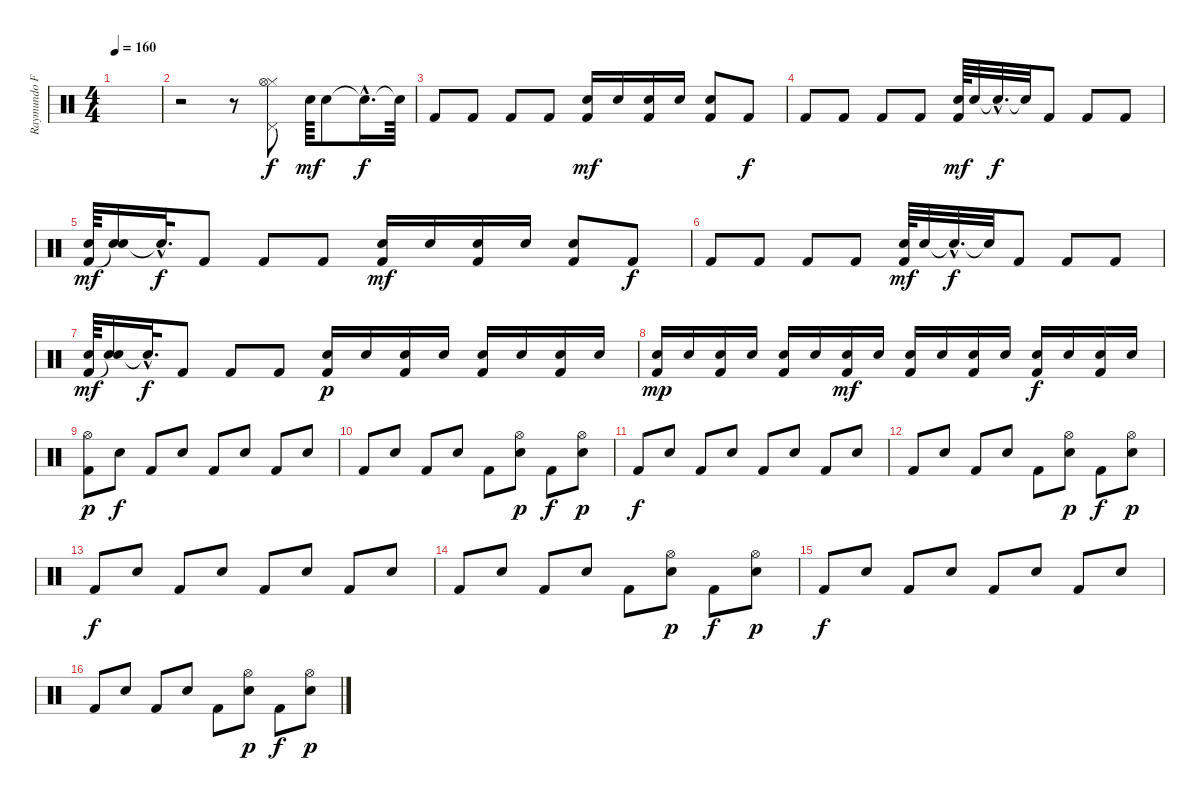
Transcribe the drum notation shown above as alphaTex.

\track ("Raymundo Fajardo (Batería)" "Raymundo F") {instrument percussion}
\staff {score}
\articulation defaults
\ts (4 4)
\tempo 160
\clef neutral
\ks c
|
r.2 r.8 ("Hi-Hat (closed)" "Pedal Hi-Hat (hit)" "Hi-Hat (open)").8 "Electric Snare (hit)".64{dy mf} "Electric Snare (hit)".8 "Snare (hit)"{hac t}.16{d dy f} "Snare (hit)"{t}.64 |
"Kick (hit) 2".8 "Kick (hit) 2".8 "Kick (hit) 2".8 "Kick (hit) 2".8 ("Electric Snare (hit)" "Kick (hit) 2").16{dy mf} "Electric Snare (hit)".16 ("Electric Snare (hit)" "Kick (hit) 2").16 "Electric Snare (hit)".16 ("Electric Snare (hit)" "Kick (hit) 2").8 "Kick (hit) 2".8{dy f} |
"Kick (hit) 2".8 "Kick (hit) 2".8 "Kick (hit) 2".8 "Kick (hit) 2".8 ("Kick (hit) 2" "Electric Snare (hit)").64{dy mf} "Electric Snare (hit)".32 "Snare (hit)"{hac t}.32{d dy f} "Snare (hit)"{t}.32 "Kick (hit) 2".8 "Kick (hit) 2".8 "Kick (hit) 2".8 |
("Kick (hit) 2" "Electric Snare (hit)").64{dy mf} ("Snare (hit)"{t} "Electric Snare (hit)").16 "Snare (hit)"{hac t}.32{d dy f} "Kick (hit) 2".8 "Kick (hit) 2".8 "Kick (hit) 2".8 ("Electric Snare (hit)" "Kick (hit) 2").16{dy mf} "Electric Snare (hit)".16 ("Electric Snare (hit)" "Kick (hit) 2").16 "Electric Snare (hit)".16 ("Electric Snare (hit)" "Kick (hit) 2").8 "Kick (hit) 2".8{dy f} |
"Kick (hit) 2".8 "Kick (hit) 2".8 "Kick (hit) 2".8 "Kick (hit) 2".8 ("Kick (hit) 2" "Electric Snare (hit)").64{dy mf} "Electric Snare (hit)".32 "Snare (hit)"{hac t}.32{d dy f} "Snare (hit)"{t}.32 "Kick (hit) 2".8 "Kick (hit) 2".8 "Kick (hit) 2".8 |
("Kick (hit) 2" "Electric Snare (hit)").64{dy mf} ("Snare (hit)"{t} "Electric Snare (hit)").16 "Snare (hit)"{hac t}.32{d dy f} "Kick (hit) 2".8 "Kick (hit) 2".8 "Kick (hit) 2".8 ("Electric Snare (hit)" "Kick (hit) 2").16{dy p} "Electric Snare (hit)".16 ("Electric Snare (hit)" "Kick (hit) 2").16 "Electric Snare (hit)".16 ("Electric Snare (hit)" "Kick (hit) 2").16 "Electric Snare (hit)".16 ("Electric Snare (hit)" "Kick (hit) 2").16 "Electric Snare (hit)".16 |
("Electric Snare (hit)" "Kick (hit) 2").16{dy mp} "Electric Snare (hit)".16 ("Electric Snare (hit)" "Kick (hit) 2").16 "Electric Snare (hit)".16 ("Electric Snare (hit)" "Kick (hit) 2").16 "Electric Snare (hit)".16 ("Electric Snare (hit)" "Kick (hit) 2").16{dy mf} "Electric Snare (hit)".16 ("Electric Snare (hit)" "Kick (hit) 2").16 "Electric Snare (hit)".16 ("Electric Snare (hit)" "Kick (hit) 2").16 "Electric Snare (hit)".16 ("Electric Snare (hit)" "Kick (hit) 2").16{dy f} "Electric Snare (hit)".16 ("Electric Snare (hit)" "Kick (hit) 2").16 "Electric Snare (hit)".16 |
("Kick (hit) 2" "Hi-Hat (open)").8{dy p} "Electric Snare (hit)".8{dy f} "Kick (hit) 2".8 "Electric Snare (hit)".8 "Kick (hit) 2".8 "Electric Snare (hit)".8 "Kick (hit) 2".8 "Electric Snare (hit)".8 |
"Kick (hit) 2".8 "Electric Snare (hit)".8 "Kick (hit) 2".8 "Electric Snare (hit)".8 "Kick (hit) 2".8 ("Electric Snare (hit)" "Hi-Hat (open)").8{dy p} "Kick (hit) 2".8{dy f} ("Electric Snare (hit)" "Hi-Hat (open)").8{dy p} |
"Kick (hit) 2".8{dy f} "Electric Snare (hit)".8 "Kick (hit) 2".8 "Electric Snare (hit)".8 "Kick (hit) 2".8 "Electric Snare (hit)".8 "Kick (hit) 2".8 "Electric Snare (hit)".8 |
"Kick (hit) 2".8 "Electric Snare (hit)".8 "Kick (hit) 2".8 "Electric Snare (hit)".8 "Kick (hit) 2".8 ("Electric Snare (hit)" "Hi-Hat (open)").8{dy p} "Kick (hit) 2".8{dy f} ("Electric Snare (hit)" "Hi-Hat (open)").8{dy p} |
"Kick (hit) 2".8{dy f} "Electric Snare (hit)".8 "Kick (hit) 2".8 "Electric Snare (hit)".8 "Kick (hit) 2".8 "Electric Snare (hit)".8 "Kick (hit) 2".8 "Electric Snare (hit)".8 |
"Kick (hit) 2".8 "Electric Snare (hit)".8 "Kick (hit) 2".8 "Electric Snare (hit)".8 "Kick (hit) 2".8 ("Electric Snare (hit)" "Hi-Hat (open)").8{dy p} "Kick (hit) 2".8{dy f} ("Electric Snare (hit)" "Hi-Hat (open)").8{dy p} |
"Kick (hit) 2".8{dy f} "Electric Snare (hit)".8 "Kick (hit) 2".8 "Electric Snare (hit)".8 "Kick (hit) 2".8 "Electric Snare (hit)".8 "Kick (hit) 2".8 "Electric Snare (hit)".8 |
"Kick (hit) 2".8 "Electric Snare (hit)".8 "Kick (hit) 2".8 "Electric Snare (hit)".8 "Kick (hit) 2".8 ("Electric Snare (hit)" "Hi-Hat (open)").8{dy p} "Kick (hit) 2".8{dy f} ("Electric Snare (hit)" "Hi-Hat (open)").8{dy p}
